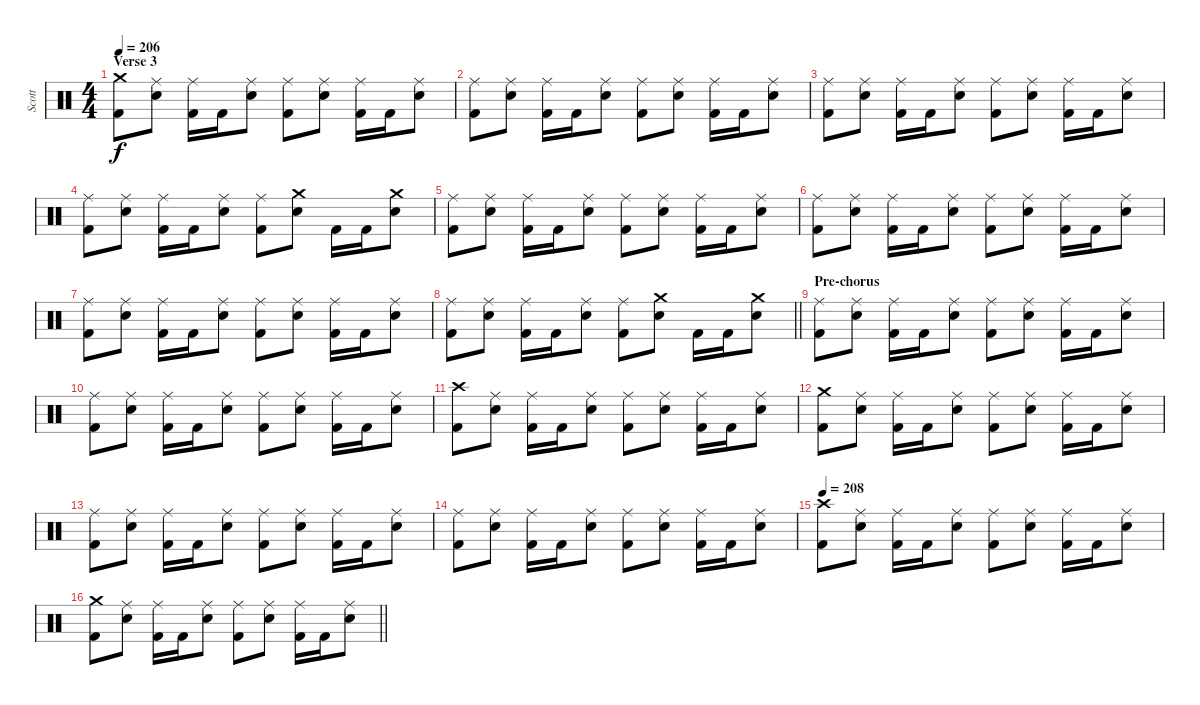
\track ("Scott" "Scott") {instrument percussion}
\staff {score}
\articulation defaults
\ts (4 4)
\section ("" "Verse 3")
\tempo 206
\clef neutral
\ks c
("Crash medium (hit)" "Kick (hit) 2").8{dy f} ("Ride (middle)" "Electric Snare (hit)").8 ("Ride (middle)" "Kick (hit) 2").16 "Kick (hit) 2".16 ("Ride (middle)" "Electric Snare (hit)").8 ("Ride (middle)" "Kick (hit) 2").8 ("Ride (middle)" "Electric Snare (hit)").8 ("Ride (middle)" "Kick (hit) 2").16 "Kick (hit) 2".16 ("Ride (middle)" "Electric Snare (hit)").8 |
("Ride (middle)" "Kick (hit) 2").8 ("Ride (middle)" "Electric Snare (hit)").8 ("Ride (middle)" "Kick (hit) 2").16 "Kick (hit) 2".16 ("Ride (middle)" "Electric Snare (hit)").8 ("Ride (middle)" "Kick (hit) 2").8 ("Ride (middle)" "Electric Snare (hit)").8 ("Ride (middle)" "Kick (hit) 2").16 "Kick (hit) 2".16 ("Ride (middle)" "Electric Snare (hit)").8 |
("Ride (middle)" "Kick (hit) 2").8 ("Ride (middle)" "Electric Snare (hit)").8 ("Ride (middle)" "Kick (hit) 2").16 "Kick (hit) 2".16 ("Ride (middle)" "Electric Snare (hit)").8 ("Ride (middle)" "Kick (hit) 2").8 ("Ride (middle)" "Electric Snare (hit)").8 ("Ride (middle)" "Kick (hit) 2").16 "Kick (hit) 2".16 ("Ride (middle)" "Electric Snare (hit)").8 |
("Ride (middle)" "Kick (hit) 2").8 ("Ride (middle)" "Electric Snare (hit)").8 ("Ride (middle)" "Kick (hit) 2").16 "Kick (hit) 2".16 ("Ride (middle)" "Electric Snare (hit)").8 ("Ride (middle)" "Kick (hit) 2").8 ("Crash medium (hit)" "Electric Snare (hit)").8 "Kick (hit) 2".16 "Kick (hit) 2".16 ("Crash medium (hit)" "Electric Snare (hit)").8 |
("Ride (middle)" "Kick (hit) 2").8 ("Ride (middle)" "Electric Snare (hit)").8 ("Ride (middle)" "Kick (hit) 2").16 "Kick (hit) 2".16 ("Ride (middle)" "Electric Snare (hit)").8 ("Ride (middle)" "Kick (hit) 2").8 ("Ride (middle)" "Electric Snare (hit)").8 ("Ride (middle)" "Kick (hit) 2").16 "Kick (hit) 2".16 ("Ride (middle)" "Electric Snare (hit)").8 |
("Ride (middle)" "Kick (hit) 2").8 ("Ride (middle)" "Electric Snare (hit)").8 ("Ride (middle)" "Kick (hit) 2").16 "Kick (hit) 2".16 ("Ride (middle)" "Electric Snare (hit)").8 ("Ride (middle)" "Kick (hit) 2").8 ("Ride (middle)" "Electric Snare (hit)").8 ("Ride (middle)" "Kick (hit) 2").16 "Kick (hit) 2".16 ("Ride (middle)" "Electric Snare (hit)").8 |
("Ride (middle)" "Kick (hit) 2").8 ("Ride (middle)" "Electric Snare (hit)").8 ("Ride (middle)" "Kick (hit) 2").16 "Kick (hit) 2".16 ("Ride (middle)" "Electric Snare (hit)").8 ("Ride (middle)" "Kick (hit) 2").8 ("Ride (middle)" "Electric Snare (hit)").8 ("Ride (middle)" "Kick (hit) 2").16 "Kick (hit) 2".16 ("Ride (middle)" "Electric Snare (hit)").8 |
\barLineRight lightlight
("Ride (middle)" "Kick (hit) 2").8 ("Ride (middle)" "Electric Snare (hit)").8 ("Ride (middle)" "Kick (hit) 2").16 "Kick (hit) 2".16 ("Ride (middle)" "Electric Snare (hit)").8 ("Ride (middle)" "Kick (hit) 2").8 ("Crash medium (hit)" "Electric Snare (hit)").8 "Kick (hit) 2".16 "Kick (hit) 2".16 ("Crash medium (hit)" "Electric Snare (hit)").8 |
\section ("" "Pre-chorus")
("Ride (middle)" "Kick (hit) 2").8 ("Ride (middle)" "Electric Snare (hit)").8 ("Ride (middle)" "Kick (hit) 2").16 "Kick (hit) 2".16 ("Ride (middle)" "Electric Snare (hit)").8 ("Ride (middle)" "Kick (hit) 2").8 ("Ride (middle)" "Electric Snare (hit)").8 ("Ride (middle)" "Kick (hit) 2").16 "Kick (hit) 2".16 ("Ride (middle)" "Electric Snare (hit)").8 |
("Ride (middle)" "Kick (hit) 2").8 ("Ride (middle)" "Electric Snare (hit)").8 ("Ride (middle)" "Kick (hit) 2").16 "Kick (hit) 2".16 ("Ride (middle)" "Electric Snare (hit)").8 ("Ride (middle)" "Kick (hit) 2").8 ("Ride (middle)" "Electric Snare (hit)").8 ("Ride (middle)" "Kick (hit) 2").16 "Kick (hit) 2".16 ("Ride (middle)" "Electric Snare (hit)").8 |
("Crash high (hit)" "Kick (hit) 2").8 ("Ride (middle)" "Electric Snare (hit)").8 ("Ride (middle)" "Kick (hit) 2").16 "Kick (hit) 2".16 ("Ride (middle)" "Electric Snare (hit)").8 ("Ride (middle)" "Kick (hit) 2").8 ("Ride (middle)" "Electric Snare (hit)").8 ("Ride (middle)" "Kick (hit) 2").16 "Kick (hit) 2".16 ("Ride (middle)" "Electric Snare (hit)").8 |
("Crash medium (hit)" "Kick (hit) 2").8 ("Ride (middle)" "Electric Snare (hit)").8 ("Ride (middle)" "Kick (hit) 2").16 "Kick (hit) 2".16 ("Ride (middle)" "Electric Snare (hit)").8 ("Ride (middle)" "Kick (hit) 2").8 ("Ride (middle)" "Electric Snare (hit)").8 ("Ride (middle)" "Kick (hit) 2").16 "Kick (hit) 2".16 ("Ride (middle)" "Electric Snare (hit)").8 |
("Ride (middle)" "Kick (hit) 2").8 ("Ride (middle)" "Electric Snare (hit)").8 ("Ride (middle)" "Kick (hit) 2").16 "Kick (hit) 2".16 ("Ride (middle)" "Electric Snare (hit)").8 ("Ride (middle)" "Kick (hit) 2").8 ("Ride (middle)" "Electric Snare (hit)").8 ("Ride (middle)" "Kick (hit) 2").16 "Kick (hit) 2".16 ("Ride (middle)" "Electric Snare (hit)").8 |
("Ride (middle)" "Kick (hit) 2").8 ("Ride (middle)" "Electric Snare (hit)").8 ("Ride (middle)" "Kick (hit) 2").16 "Kick (hit) 2".16 ("Ride (middle)" "Electric Snare (hit)").8 ("Ride (middle)" "Kick (hit) 2").8 ("Ride (middle)" "Electric Snare (hit)").8 ("Ride (middle)" "Kick (hit) 2").16 "Kick (hit) 2".16 ("Ride (middle)" "Electric Snare (hit)").8 |
\tempo 208
("Crash high (hit)" "Kick (hit) 2").8 ("Ride (middle)" "Electric Snare (hit)").8 ("Ride (middle)" "Kick (hit) 2").16 "Kick (hit) 2".16 ("Ride (middle)" "Electric Snare (hit)").8 ("Ride (middle)" "Kick (hit) 2").8 ("Ride (middle)" "Electric Snare (hit)").8 ("Ride (middle)" "Kick (hit) 2").16 "Kick (hit) 2".16 ("Ride (middle)" "Electric Snare (hit)").8 |
\barLineRight lightlight
("Crash medium (hit)" "Kick (hit) 2").8 ("Ride (middle)" "Electric Snare (hit)").8 ("Ride (middle)" "Kick (hit) 2").16 "Kick (hit) 2".16 ("Ride (middle)" "Electric Snare (hit)").8 ("Ride (middle)" "Kick (hit) 2").8 ("Ride (middle)" "Electric Snare (hit)").8 ("Ride (middle)" "Kick (hit) 2").16 "Kick (hit) 2".16 ("Ride (middle)" "Electric Snare (hit)").8
